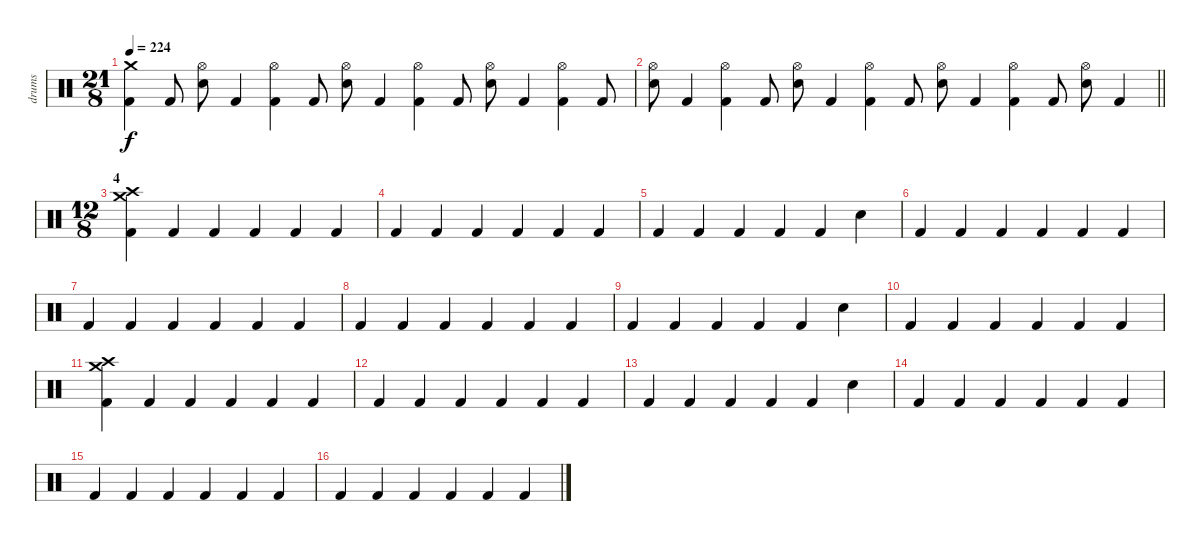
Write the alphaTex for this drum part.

\track ("drums" "drums") {instrument percussion}
\staff {score}
\articulation defaults
\ts (21 8)
\tempo 224
\clef neutral
\ks c
("Kick (hit) 2" "Crash medium (hit)").4{dy f} "Kick (hit) 2".8 ("Electric Snare (hit)" "Hi-Hat (open)").8 "Kick (hit) 2".4 ("Kick (hit) 2" "Hi-Hat (open)").4 "Kick (hit) 2".8 ("Electric Snare (hit)" "Hi-Hat (open)").8 "Kick (hit) 2".4 ("Kick (hit) 2" "Hi-Hat (open)").4 "Kick (hit) 2".8 ("Electric Snare (hit)" "Hi-Hat (open)").8 "Kick (hit) 2".4 ("Kick (hit) 2" "Hi-Hat (open)").4 "Kick (hit) 2".8 |
\barLineRight lightlight
("Electric Snare (hit)" "Hi-Hat (open)").8 "Kick (hit) 2".4 ("Kick (hit) 2" "Hi-Hat (open)").4 "Kick (hit) 2".8 ("Electric Snare (hit)" "Hi-Hat (open)").8 "Kick (hit) 2".4 ("Kick (hit) 2" "Hi-Hat (open)").4 "Kick (hit) 2".8 ("Electric Snare (hit)" "Hi-Hat (open)").8 "Kick (hit) 2".4 ("Kick (hit) 2" "Hi-Hat (open)").4 "Kick (hit) 2".8 ("Electric Snare (hit)" "Hi-Hat (open)").8 "Kick (hit) 2".4 |
\ts (12 8)
\section ("" "4")
("Kick (hit) 2" "Crash medium (hit)" "Crash high (hit)").4 "Kick (hit) 2".4 "Kick (hit) 2".4 "Kick (hit) 2".4 "Kick (hit) 2".4 "Kick (hit) 2".4 |
"Kick (hit) 2".4 "Kick (hit) 2".4 "Kick (hit) 2".4 "Kick (hit) 2".4 "Kick (hit) 2".4 "Kick (hit) 2".4 |
"Kick (hit) 2".4 "Kick (hit) 2".4 "Kick (hit) 2".4 "Kick (hit) 2".4 "Kick (hit) 2".4 "Electric Snare (hit)".4 |
"Kick (hit) 2".4 "Kick (hit) 2".4 "Kick (hit) 2".4 "Kick (hit) 2".4 "Kick (hit) 2".4 "Kick (hit) 2".4 |
"Kick (hit) 2".4 "Kick (hit) 2".4 "Kick (hit) 2".4 "Kick (hit) 2".4 "Kick (hit) 2".4 "Kick (hit) 2".4 |
"Kick (hit) 2".4 "Kick (hit) 2".4 "Kick (hit) 2".4 "Kick (hit) 2".4 "Kick (hit) 2".4 "Kick (hit) 2".4 |
"Kick (hit) 2".4 "Kick (hit) 2".4 "Kick (hit) 2".4 "Kick (hit) 2".4 "Kick (hit) 2".4 "Electric Snare (hit)".4 |
"Kick (hit) 2".4 "Kick (hit) 2".4 "Kick (hit) 2".4 "Kick (hit) 2".4 "Kick (hit) 2".4 "Kick (hit) 2".4 |
("Kick (hit) 2" "Crash medium (hit)" "Crash high (hit)").4 "Kick (hit) 2".4 "Kick (hit) 2".4 "Kick (hit) 2".4 "Kick (hit) 2".4 "Kick (hit) 2".4 |
"Kick (hit) 2".4 "Kick (hit) 2".4 "Kick (hit) 2".4 "Kick (hit) 2".4 "Kick (hit) 2".4 "Kick (hit) 2".4 |
"Kick (hit) 2".4 "Kick (hit) 2".4 "Kick (hit) 2".4 "Kick (hit) 2".4 "Kick (hit) 2".4 "Electric Snare (hit)".4 |
"Kick (hit) 2".4 "Kick (hit) 2".4 "Kick (hit) 2".4 "Kick (hit) 2".4 "Kick (hit) 2".4 "Kick (hit) 2".4 |
"Kick (hit) 2".4 "Kick (hit) 2".4 "Kick (hit) 2".4 "Kick (hit) 2".4 "Kick (hit) 2".4 "Kick (hit) 2".4 |
"Kick (hit) 2".4 "Kick (hit) 2".4 "Kick (hit) 2".4 "Kick (hit) 2".4 "Kick (hit) 2".4 "Kick (hit) 2".4
